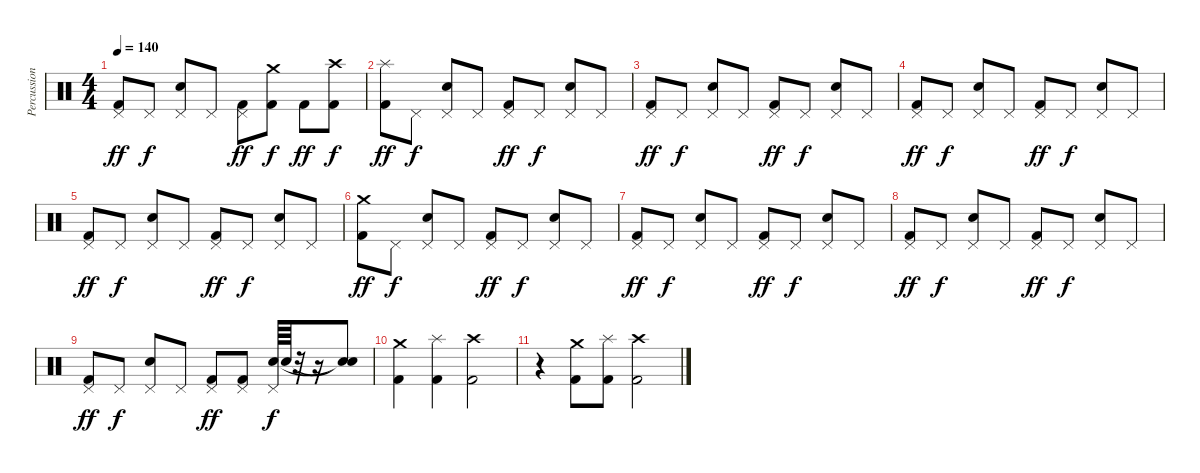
\track ("Percussion" "Percussion") {instrument percussion}
\staff {score}
\articulation defaults
\ts (4 4)
\tempo 140
\clef neutral
\ks c
("Pedal Hi-Hat (hit)" "Kick (hit) 2").8{dy ff} "Pedal Hi-Hat (hit)".8{dy f} ("Pedal Hi-Hat (hit)" "Snare (hit) 2").8 "Pedal Hi-Hat (hit)".8 ("Pedal Hi-Hat (hit)" "Kick (hit) 2").8{dy ff} ("Crash medium (hit)" "Kick (hit) 2").8{dy f} "Kick (hit) 2".8{dy ff} ("Crash high (hit)" "Kick (hit) 2").8{dy f} |
("Splash (hit)" "Kick (hit) 2").8{dy ff} "Pedal Hi-Hat (hit)".8{dy f} ("Pedal Hi-Hat (hit)" "Snare (hit) 2").8 "Pedal Hi-Hat (hit)".8 ("Pedal Hi-Hat (hit)" "Kick (hit) 2").8{dy ff} "Pedal Hi-Hat (hit)".8{dy f} ("Pedal Hi-Hat (hit)" "Snare (hit) 2").8 "Pedal Hi-Hat (hit)".8 |
("Pedal Hi-Hat (hit)" "Kick (hit) 2").8{dy ff} "Pedal Hi-Hat (hit)".8{dy f} ("Pedal Hi-Hat (hit)" "Snare (hit) 2").8 "Pedal Hi-Hat (hit)".8 ("Pedal Hi-Hat (hit)" "Kick (hit) 2").8{dy ff} "Pedal Hi-Hat (hit)".8{dy f} ("Pedal Hi-Hat (hit)" "Snare (hit) 2").8 "Pedal Hi-Hat (hit)".8 |
("Pedal Hi-Hat (hit)" "Kick (hit) 2").8{dy ff} "Pedal Hi-Hat (hit)".8{dy f} ("Pedal Hi-Hat (hit)" "Snare (hit) 2").8 "Pedal Hi-Hat (hit)".8 ("Pedal Hi-Hat (hit)" "Kick (hit) 2").8{dy ff} "Pedal Hi-Hat (hit)".8{dy f} ("Pedal Hi-Hat (hit)" "Snare (hit) 2").8 "Pedal Hi-Hat (hit)".8 |
("Pedal Hi-Hat (hit)" "Kick (hit) 2").8{dy ff} "Pedal Hi-Hat (hit)".8{dy f} ("Pedal Hi-Hat (hit)" "Snare (hit) 2").8 "Pedal Hi-Hat (hit)".8 ("Pedal Hi-Hat (hit)" "Kick (hit) 2").8{dy ff} "Pedal Hi-Hat (hit)".8{dy f} ("Pedal Hi-Hat (hit)" "Snare (hit) 2").8 "Pedal Hi-Hat (hit)".8 |
("Crash medium (hit)" "Kick (hit) 2").8{dy ff} "Pedal Hi-Hat (hit)".8{dy f} ("Pedal Hi-Hat (hit)" "Snare (hit) 2").8 "Pedal Hi-Hat (hit)".8 ("Pedal Hi-Hat (hit)" "Kick (hit) 2").8{dy ff} "Pedal Hi-Hat (hit)".8{dy f} ("Pedal Hi-Hat (hit)" "Snare (hit) 2").8 "Pedal Hi-Hat (hit)".8 |
("Pedal Hi-Hat (hit)" "Kick (hit) 2").8{dy ff} "Pedal Hi-Hat (hit)".8{dy f} ("Pedal Hi-Hat (hit)" "Snare (hit) 2").8 "Pedal Hi-Hat (hit)".8 ("Pedal Hi-Hat (hit)" "Kick (hit) 2").8{dy ff} "Pedal Hi-Hat (hit)".8{dy f} ("Pedal Hi-Hat (hit)" "Snare (hit) 2").8 "Pedal Hi-Hat (hit)".8 |
("Pedal Hi-Hat (hit)" "Kick (hit) 2").8{dy ff} "Pedal Hi-Hat (hit)".8{dy f} ("Pedal Hi-Hat (hit)" "Snare (hit) 2").8 "Pedal Hi-Hat (hit)".8 ("Pedal Hi-Hat (hit)" "Kick (hit) 2").8{dy ff} "Pedal Hi-Hat (hit)".8{dy f} ("Pedal Hi-Hat (hit)" "Snare (hit) 2").8 "Pedal Hi-Hat (hit)".8 |
("Pedal Hi-Hat (hit)" "Kick (hit) 2").8{dy ff} "Pedal Hi-Hat (hit)".8{dy f} ("Pedal Hi-Hat (hit)" "Snare (hit) 2").8 "Pedal Hi-Hat (hit)".8 ("Pedal Hi-Hat (hit)" "Kick (hit) 2").8{dy ff} ("Pedal Hi-Hat (hit)" "Kick (hit) 2").8 ("Pedal Hi-Hat (hit)" "Snare (hit) 2").64{dy f} "Snare (hit) 2".64 r.32 r.16 ("Snare (hit)"{t} "Snare (hit)"{t}).8 |
("Crash medium (hit)" "Kick (hit) 2").4 ("Splash (hit)" "Kick (hit) 2").4 ("Crash high (hit)" "Kick (hit) 2").2 |
r.4 ("Crash medium (hit)" "Kick (hit) 2").8 ("Splash (hit)" "Kick (hit) 2").8 ("Crash high (hit)" "Kick (hit) 2").2
